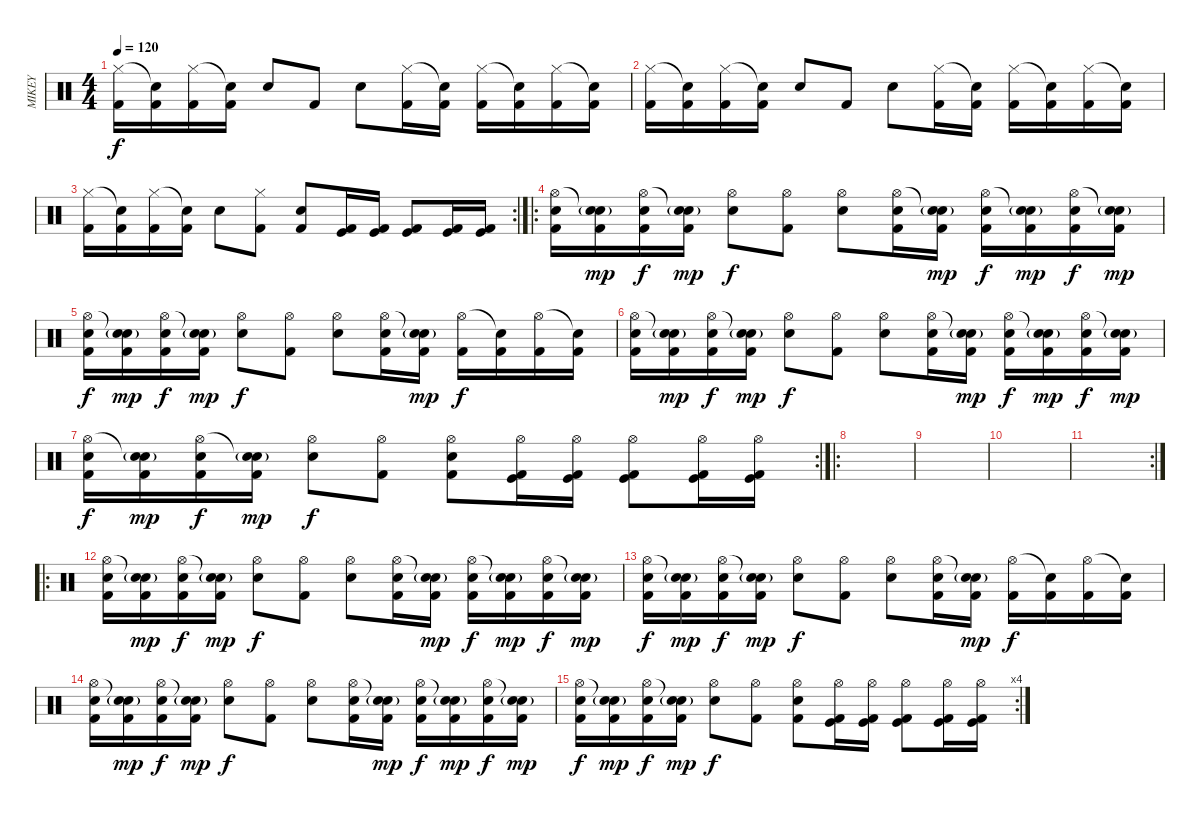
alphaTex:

\track ("MIKEY" "MIKEY") {instrument percussion}
\staff {score}
\articulation defaults
\ts (4 4)
\tempo 120
\clef neutral
\ks c
("Hi-Hat (closed)" "Kick (hit) 2").16{dy f} ("Snare (hit)"{t} "Kick (hit) 2").16 ("Hi-Hat (closed)" "Kick (hit) 2").16 ("Snare (hit)"{t} "Kick (hit) 2").16 "Electric Snare (hit)".8 "Kick (hit) 2".8 "Electric Snare (hit)".8 ("Hi-Hat (closed)" "Kick (hit) 2").16 ("Snare (hit)"{t} "Kick (hit) 2").16 ("Hi-Hat (closed)" "Kick (hit) 2").16 ("Snare (hit)"{t} "Kick (hit) 2").16 ("Hi-Hat (closed)" "Kick (hit) 2").16 ("Snare (hit)"{t} "Kick (hit) 2").16 |
("Hi-Hat (closed)" "Kick (hit) 2").16 ("Snare (hit)"{t} "Kick (hit) 2").16 ("Hi-Hat (closed)" "Kick (hit) 2").16 ("Snare (hit)"{t} "Kick (hit) 2").16 "Electric Snare (hit)".8 "Kick (hit) 2".8 "Electric Snare (hit)".8 ("Hi-Hat (closed)" "Kick (hit) 2").16 ("Snare (hit)"{t} "Kick (hit) 2").16 ("Hi-Hat (closed)" "Kick (hit) 2").16 ("Snare (hit)"{t} "Kick (hit) 2").16 ("Hi-Hat (closed)" "Kick (hit) 2").16 ("Snare (hit)"{t} "Kick (hit) 2").16 |
\rc 2
("Hi-Hat (closed)" "Kick (hit) 2").16 ("Snare (hit)"{t} "Kick (hit) 2").16 ("Hi-Hat (closed)" "Kick (hit) 2").16 ("Snare (hit)"{t} "Kick (hit) 2").16 "Electric Snare (hit)".8 ("Hi-Hat (closed)" "Kick (hit) 2").8 ("Kick (hit) 2" "Electric Snare (hit)").8 ("Kick (hit) 2" "Kick (hit)").16 ("Kick (hit) 2" "Kick (hit)").16 ("Kick (hit) 2" "Kick (hit)").8 ("Kick (hit) 2" "Kick (hit)").16 ("Kick (hit) 2" "Kick (hit)").16 |
\ro
("Hi-Hat (open)" "Snare (hit) 2" "Kick (hit) 2").16 ("Snare (hit)"{t} "Snare (hit) 2"{g} "Kick (hit) 2").16{dy mp} ("Hi-Hat (open)" "Snare (hit) 2" "Kick (hit) 2").16{dy f} ("Snare (hit)"{t} "Snare (hit) 2"{g} "Kick (hit) 2").16{dy mp} ("Hi-Hat (open)" "Electric Snare (hit)").8{dy f} ("Hi-Hat (open)" "Kick (hit) 2").8 ("Hi-Hat (open)" "Electric Snare (hit)").8 ("Hi-Hat (open)" "Snare (hit) 2" "Kick (hit) 2").16 ("Snare (hit)"{t} "Snare (hit) 2"{g} "Kick (hit) 2").16{dy mp} ("Hi-Hat (open)" "Snare (hit) 2" "Kick (hit) 2").16{dy f} ("Snare (hit)"{t} "Snare (hit) 2"{g} "Kick (hit) 2").16{dy mp} ("Hi-Hat (open)" "Snare (hit) 2" "Kick (hit) 2").16{dy f} ("Snare (hit)"{t} "Snare (hit) 2"{g} "Kick (hit) 2").16{dy mp} |
("Hi-Hat (open)" "Snare (hit) 2" "Kick (hit) 2").16{dy f} ("Snare (hit)"{t} "Snare (hit) 2"{g} "Kick (hit) 2").16{dy mp} ("Hi-Hat (open)" "Snare (hit) 2" "Kick (hit) 2").16{dy f} ("Snare (hit)"{t} "Snare (hit) 2"{g} "Kick (hit) 2").16{dy mp} ("Hi-Hat (open)" "Electric Snare (hit)").8{dy f} ("Hi-Hat (open)" "Kick (hit) 2").8 ("Hi-Hat (open)" "Electric Snare (hit)").8 ("Hi-Hat (open)" "Snare (hit) 2" "Kick (hit) 2").16 ("Snare (hit)"{t} "Snare (hit) 2"{g} "Kick (hit) 2").16{dy mp} ("Hi-Hat (open)" "Kick (hit) 2").16{dy f} ("Snare (hit)"{t} "Kick (hit) 2").16 ("Hi-Hat (open)" "Kick (hit) 2").16 ("Snare (hit)"{t} "Kick (hit) 2").16 |
("Hi-Hat (open)" "Snare (hit) 2" "Kick (hit) 2").16 ("Snare (hit)"{t} "Snare (hit) 2"{g} "Kick (hit) 2").16{dy mp} ("Hi-Hat (open)" "Snare (hit) 2" "Kick (hit) 2").16{dy f} ("Snare (hit)"{t} "Snare (hit) 2"{g} "Kick (hit) 2").16{dy mp} ("Hi-Hat (open)" "Electric Snare (hit)").8{dy f} ("Hi-Hat (open)" "Kick (hit) 2").8 ("Hi-Hat (open)" "Electric Snare (hit)").8 ("Hi-Hat (open)" "Snare (hit) 2" "Kick (hit) 2").16 ("Snare (hit)"{t} "Snare (hit) 2"{g} "Kick (hit) 2").16{dy mp} ("Hi-Hat (open)" "Snare (hit) 2" "Kick (hit) 2").16{dy f} ("Snare (hit)"{t} "Snare (hit) 2"{g} "Kick (hit) 2").16{dy mp} ("Hi-Hat (open)" "Snare (hit) 2" "Kick (hit) 2").16{dy f} ("Snare (hit)"{t} "Snare (hit) 2"{g} "Kick (hit) 2").16{dy mp} |
\rc 2
("Hi-Hat (open)" "Snare (hit) 2" "Kick (hit) 2").16{dy f} ("Snare (hit)"{t} "Snare (hit) 2"{g} "Kick (hit) 2").16{dy mp} ("Hi-Hat (open)" "Snare (hit) 2" "Kick (hit) 2").16{dy f} ("Snare (hit)"{t} "Snare (hit) 2"{g} "Kick (hit) 2").16{dy mp} ("Hi-Hat (open)" "Electric Snare (hit)").8{dy f} ("Hi-Hat (open)" "Kick (hit) 2").8 ("Kick (hit) 2" "Hi-Hat (open)" "Electric Snare (hit)").8 ("Kick (hit) 2" "Hi-Hat (open)" "Kick (hit)").16 ("Kick (hit) 2" "Hi-Hat (open)" "Kick (hit)").16 ("Kick (hit) 2" "Hi-Hat (open)" "Kick (hit)").8 ("Kick (hit) 2" "Hi-Hat (open)" "Kick (hit)").16 ("Kick (hit) 2" "Hi-Hat (open)" "Kick (hit)").16 |
\ro
|
|
|
\rc 2
|
\ro
("Hi-Hat (open)" "Snare (hit) 2" "Kick (hit) 2").16 ("Snare (hit)"{t} "Snare (hit) 2"{g} "Kick (hit) 2").16{dy mp} ("Hi-Hat (open)" "Snare (hit) 2" "Kick (hit) 2").16{dy f} ("Snare (hit)"{t} "Snare (hit) 2"{g} "Kick (hit) 2").16{dy mp} ("Hi-Hat (open)" "Electric Snare (hit)").8{dy f} ("Hi-Hat (open)" "Kick (hit) 2").8 ("Hi-Hat (open)" "Electric Snare (hit)").8 ("Hi-Hat (open)" "Snare (hit) 2" "Kick (hit) 2").16 ("Snare (hit)"{t} "Snare (hit) 2"{g} "Kick (hit) 2").16{dy mp} ("Hi-Hat (open)" "Snare (hit) 2" "Kick (hit) 2").16{dy f} ("Snare (hit)"{t} "Snare (hit) 2"{g} "Kick (hit) 2").16{dy mp} ("Hi-Hat (open)" "Snare (hit) 2" "Kick (hit) 2").16{dy f} ("Snare (hit)"{t} "Snare (hit) 2"{g} "Kick (hit) 2").16{dy mp} |
("Hi-Hat (open)" "Snare (hit) 2" "Kick (hit) 2").16{dy f} ("Snare (hit)"{t} "Snare (hit) 2"{g} "Kick (hit) 2").16{dy mp} ("Hi-Hat (open)" "Snare (hit) 2" "Kick (hit) 2").16{dy f} ("Snare (hit)"{t} "Snare (hit) 2"{g} "Kick (hit) 2").16{dy mp} ("Hi-Hat (open)" "Electric Snare (hit)").8{dy f} ("Hi-Hat (open)" "Kick (hit) 2").8 ("Hi-Hat (open)" "Electric Snare (hit)").8 ("Hi-Hat (open)" "Snare (hit) 2" "Kick (hit) 2").16 ("Snare (hit)"{t} "Snare (hit) 2"{g} "Kick (hit) 2").16{dy mp} ("Hi-Hat (open)" "Kick (hit) 2").16{dy f} ("Snare (hit)"{t} "Kick (hit) 2").16 ("Hi-Hat (open)" "Kick (hit) 2").16 ("Snare (hit)"{t} "Kick (hit) 2").16 |
("Hi-Hat (open)" "Snare (hit) 2" "Kick (hit) 2").16 ("Snare (hit)"{t} "Snare (hit) 2"{g} "Kick (hit) 2").16{dy mp} ("Hi-Hat (open)" "Snare (hit) 2" "Kick (hit) 2").16{dy f} ("Snare (hit)"{t} "Snare (hit) 2"{g} "Kick (hit) 2").16{dy mp} ("Hi-Hat (open)" "Electric Snare (hit)").8{dy f} ("Hi-Hat (open)" "Kick (hit) 2").8 ("Hi-Hat (open)" "Electric Snare (hit)").8 ("Hi-Hat (open)" "Snare (hit) 2" "Kick (hit) 2").16 ("Snare (hit)"{t} "Snare (hit) 2"{g} "Kick (hit) 2").16{dy mp} ("Hi-Hat (open)" "Snare (hit) 2" "Kick (hit) 2").16{dy f} ("Snare (hit)"{t} "Snare (hit) 2"{g} "Kick (hit) 2").16{dy mp} ("Hi-Hat (open)" "Snare (hit) 2" "Kick (hit) 2").16{dy f} ("Snare (hit)"{t} "Snare (hit) 2"{g} "Kick (hit) 2").16{dy mp} |
\rc 4
("Hi-Hat (open)" "Snare (hit) 2" "Kick (hit) 2").16{dy f} ("Snare (hit)"{t} "Snare (hit) 2"{g} "Kick (hit) 2").16{dy mp} ("Hi-Hat (open)" "Snare (hit) 2" "Kick (hit) 2").16{dy f} ("Snare (hit)"{t} "Snare (hit) 2"{g} "Kick (hit) 2").16{dy mp} ("Hi-Hat (open)" "Electric Snare (hit)").8{dy f} ("Hi-Hat (open)" "Kick (hit) 2").8 ("Kick (hit) 2" "Hi-Hat (open)" "Electric Snare (hit)").8 ("Kick (hit) 2" "Hi-Hat (open)" "Kick (hit)").16 ("Kick (hit) 2" "Hi-Hat (open)" "Kick (hit)").16 ("Kick (hit) 2" "Hi-Hat (open)" "Kick (hit)").8 ("Kick (hit) 2" "Hi-Hat (open)" "Kick (hit)").16 ("Kick (hit) 2" "Hi-Hat (open)" "Kick (hit)").16
